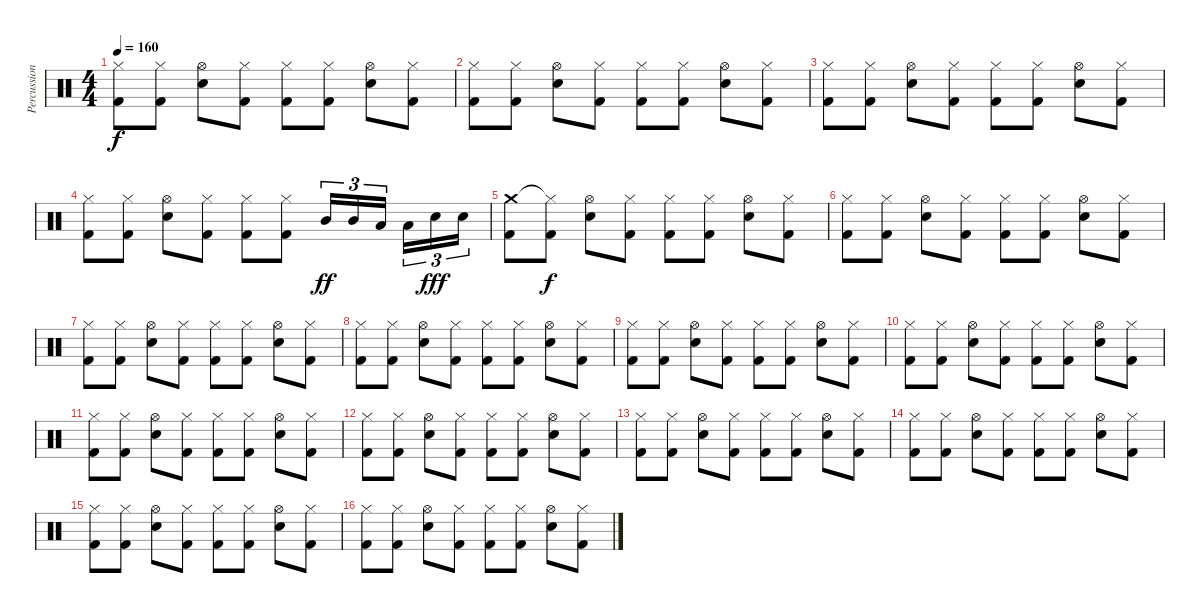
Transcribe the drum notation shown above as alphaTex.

\track ("Percussion" "Percussion") {instrument percussion}
\staff {score}
\articulation defaults
\ts (4 4)
\tempo 160
\clef neutral
\ks c
("Hi-Hat (closed)" "Kick (hit) 2").8{dy f} ("Hi-Hat (closed)" "Kick (hit) 2").8 ("Hi-Hat (open)" "Snare (hit) 2").8 ("Hi-Hat (closed)" "Kick (hit) 2").8 ("Hi-Hat (closed)" "Kick (hit) 2").8 ("Hi-Hat (closed)" "Kick (hit) 2").8 ("Hi-Hat (open)" "Snare (hit) 2").8 ("Hi-Hat (closed)" "Kick (hit) 2").8 |
("Hi-Hat (closed)" "Kick (hit) 2").8 ("Hi-Hat (closed)" "Kick (hit) 2").8 ("Hi-Hat (open)" "Snare (hit) 2").8 ("Hi-Hat (closed)" "Kick (hit) 2").8 ("Hi-Hat (closed)" "Kick (hit) 2").8 ("Hi-Hat (closed)" "Kick (hit) 2").8 ("Hi-Hat (open)" "Snare (hit) 2").8 ("Hi-Hat (closed)" "Kick (hit) 2").8 |
("Hi-Hat (closed)" "Kick (hit) 2").8 ("Hi-Hat (closed)" "Kick (hit) 2").8 ("Hi-Hat (open)" "Snare (hit) 2").8 ("Hi-Hat (closed)" "Kick (hit) 2").8 ("Hi-Hat (closed)" "Kick (hit) 2").8 ("Hi-Hat (closed)" "Kick (hit) 2").8 ("Hi-Hat (open)" "Snare (hit) 2").8 ("Hi-Hat (closed)" "Kick (hit) 2").8 |
("Hi-Hat (closed)" "Kick (hit) 2").8 ("Hi-Hat (closed)" "Kick (hit) 2").8 ("Hi-Hat (open)" "Snare (hit) 2").8 ("Hi-Hat (closed)" "Kick (hit) 2").8 ("Hi-Hat (closed)" "Kick (hit) 2").8 ("Hi-Hat (closed)" "Kick (hit) 2").8 "Mid Tom (hit)".16{tu (3 2) dy ff} "Mid Tom (hit)".16{tu (3 2)} "Low Tom (hit)".16{tu (3 2) beam splitsecondary} "Low Tom (hit)".16{tu (3 2)} "Snare (hit) 2".16{tu (3 2) dy fff} "Snare (hit) 2".16{tu (3 2)} |
("Crash medium (hit)" "Kick (hit) 2").8 ("Hi-Hat (closed)"{t} "Kick (hit) 2").8{dy f} ("Hi-Hat (open)" "Snare (hit) 2").8 ("Hi-Hat (closed)" "Kick (hit) 2").8 ("Hi-Hat (closed)" "Kick (hit) 2").8 ("Hi-Hat (closed)" "Kick (hit) 2").8 ("Hi-Hat (open)" "Snare (hit) 2").8 ("Hi-Hat (closed)" "Kick (hit) 2").8 |
("Hi-Hat (closed)" "Kick (hit) 2").8 ("Hi-Hat (closed)" "Kick (hit) 2").8 ("Hi-Hat (open)" "Snare (hit) 2").8 ("Hi-Hat (closed)" "Kick (hit) 2").8 ("Hi-Hat (closed)" "Kick (hit) 2").8 ("Hi-Hat (closed)" "Kick (hit) 2").8 ("Hi-Hat (open)" "Snare (hit) 2").8 ("Hi-Hat (closed)" "Kick (hit) 2").8 |
("Hi-Hat (closed)" "Kick (hit) 2").8 ("Hi-Hat (closed)" "Kick (hit) 2").8 ("Hi-Hat (open)" "Snare (hit) 2").8 ("Hi-Hat (closed)" "Kick (hit) 2").8 ("Hi-Hat (closed)" "Kick (hit) 2").8 ("Hi-Hat (closed)" "Kick (hit) 2").8 ("Hi-Hat (open)" "Snare (hit) 2").8 ("Hi-Hat (closed)" "Kick (hit) 2").8 |
("Hi-Hat (closed)" "Kick (hit) 2").8 ("Hi-Hat (closed)" "Kick (hit) 2").8 ("Hi-Hat (open)" "Snare (hit) 2").8 ("Hi-Hat (closed)" "Kick (hit) 2").8 ("Hi-Hat (closed)" "Kick (hit) 2").8 ("Hi-Hat (closed)" "Kick (hit) 2").8 ("Hi-Hat (open)" "Snare (hit) 2").8 ("Hi-Hat (closed)" "Kick (hit) 2").8 |
("Hi-Hat (closed)" "Kick (hit) 2").8 ("Hi-Hat (closed)" "Kick (hit) 2").8 ("Hi-Hat (open)" "Snare (hit) 2").8 ("Hi-Hat (closed)" "Kick (hit) 2").8 ("Hi-Hat (closed)" "Kick (hit) 2").8 ("Hi-Hat (closed)" "Kick (hit) 2").8 ("Hi-Hat (open)" "Snare (hit) 2").8 ("Hi-Hat (closed)" "Kick (hit) 2").8 |
("Hi-Hat (closed)" "Kick (hit) 2").8 ("Hi-Hat (closed)" "Kick (hit) 2").8 ("Hi-Hat (open)" "Snare (hit) 2").8 ("Hi-Hat (closed)" "Kick (hit) 2").8 ("Hi-Hat (closed)" "Kick (hit) 2").8 ("Hi-Hat (closed)" "Kick (hit) 2").8 ("Hi-Hat (open)" "Snare (hit) 2").8 ("Hi-Hat (closed)" "Kick (hit) 2").8 |
("Hi-Hat (closed)" "Kick (hit) 2").8 ("Hi-Hat (closed)" "Kick (hit) 2").8 ("Hi-Hat (open)" "Snare (hit) 2").8 ("Hi-Hat (closed)" "Kick (hit) 2").8 ("Hi-Hat (closed)" "Kick (hit) 2").8 ("Hi-Hat (closed)" "Kick (hit) 2").8 ("Hi-Hat (open)" "Snare (hit) 2").8 ("Hi-Hat (closed)" "Kick (hit) 2").8 |
("Hi-Hat (closed)" "Kick (hit) 2").8 ("Hi-Hat (closed)" "Kick (hit) 2").8 ("Hi-Hat (open)" "Snare (hit) 2").8 ("Hi-Hat (closed)" "Kick (hit) 2").8 ("Hi-Hat (closed)" "Kick (hit) 2").8 ("Hi-Hat (closed)" "Kick (hit) 2").8 ("Hi-Hat (open)" "Snare (hit) 2").8 ("Hi-Hat (closed)" "Kick (hit) 2").8 |
("Hi-Hat (closed)" "Kick (hit) 2").8 ("Hi-Hat (closed)" "Kick (hit) 2").8 ("Hi-Hat (open)" "Snare (hit) 2").8 ("Hi-Hat (closed)" "Kick (hit) 2").8 ("Hi-Hat (closed)" "Kick (hit) 2").8 ("Hi-Hat (closed)" "Kick (hit) 2").8 ("Hi-Hat (open)" "Snare (hit) 2").8 ("Hi-Hat (closed)" "Kick (hit) 2").8 |
("Hi-Hat (closed)" "Kick (hit) 2").8 ("Hi-Hat (closed)" "Kick (hit) 2").8 ("Hi-Hat (open)" "Snare (hit) 2").8 ("Hi-Hat (closed)" "Kick (hit) 2").8 ("Hi-Hat (closed)" "Kick (hit) 2").8 ("Hi-Hat (closed)" "Kick (hit) 2").8 ("Hi-Hat (open)" "Snare (hit) 2").8 ("Hi-Hat (closed)" "Kick (hit) 2").8 |
("Hi-Hat (closed)" "Kick (hit) 2").8 ("Hi-Hat (closed)" "Kick (hit) 2").8 ("Hi-Hat (open)" "Snare (hit) 2").8 ("Hi-Hat (closed)" "Kick (hit) 2").8 ("Hi-Hat (closed)" "Kick (hit) 2").8 ("Hi-Hat (closed)" "Kick (hit) 2").8 ("Hi-Hat (open)" "Snare (hit) 2").8 ("Hi-Hat (closed)" "Kick (hit) 2").8 |
("Hi-Hat (closed)" "Kick (hit) 2").8 ("Hi-Hat (closed)" "Kick (hit) 2").8 ("Hi-Hat (open)" "Snare (hit) 2").8 ("Hi-Hat (closed)" "Kick (hit) 2").8 ("Hi-Hat (closed)" "Kick (hit) 2").8 ("Hi-Hat (closed)" "Kick (hit) 2").8 ("Hi-Hat (open)" "Snare (hit) 2").8 ("Hi-Hat (closed)" "Kick (hit) 2").8
